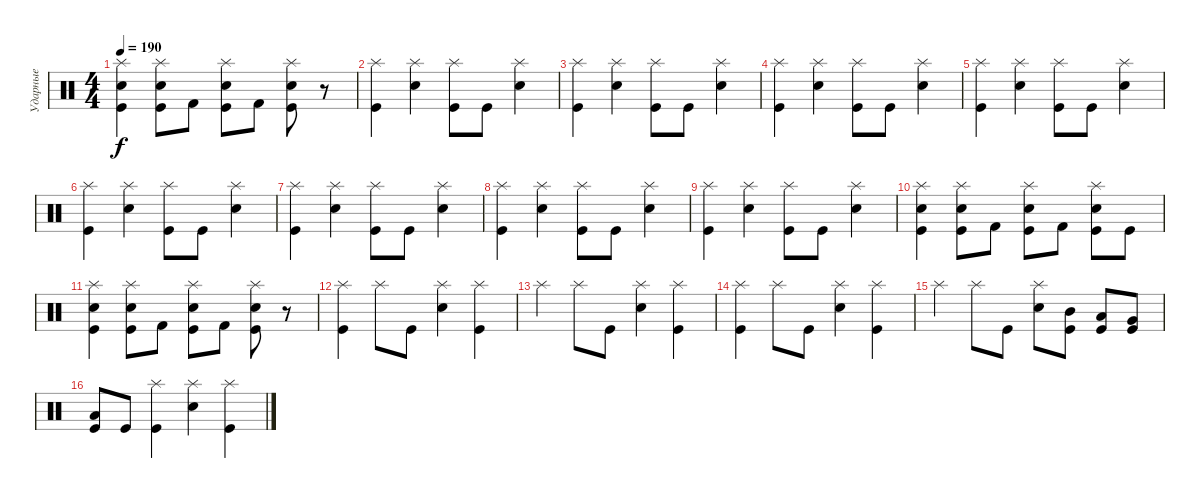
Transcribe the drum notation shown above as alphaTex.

\track ("Ударные" "Ударные") {instrument percussion}
\staff {score}
\articulation defaults
\ts (4 4)
\tempo 190
\clef neutral
\ks c
("Splash (hit)" "Electric Snare (hit)" "Kick (hit)").4{dy f} ("Splash (hit)" "Electric Snare (hit)" "Kick (hit)").8 "Kick (hit) 2".8 ("Splash (hit)" "Electric Snare (hit)" "Kick (hit)").8 "Kick (hit) 2".8 ("Splash (hit)" "Electric Snare (hit)" "Kick (hit)").8 r.8 |
("Splash (hit)" "Kick (hit)").4 ("Splash (hit)" "Electric Snare (hit)").4 ("Splash (hit)" "Kick (hit)").8 "Kick (hit)".8 ("Splash (hit)" "Electric Snare (hit)").4 |
("Splash (hit)" "Kick (hit)").4 ("Splash (hit)" "Electric Snare (hit)").4 ("Splash (hit)" "Kick (hit)").8 "Kick (hit)".8 ("Splash (hit)" "Electric Snare (hit)").4 |
("Splash (hit)" "Kick (hit)").4 ("Splash (hit)" "Electric Snare (hit)").4 ("Splash (hit)" "Kick (hit)").8 "Kick (hit)".8 ("Splash (hit)" "Electric Snare (hit)").4 |
("Splash (hit)" "Kick (hit)").4 ("Splash (hit)" "Electric Snare (hit)").4 ("Splash (hit)" "Kick (hit)").8 "Kick (hit)".8 ("Splash (hit)" "Electric Snare (hit)").4 |
("Splash (hit)" "Kick (hit)").4 ("Splash (hit)" "Electric Snare (hit)").4 ("Splash (hit)" "Kick (hit)").8 "Kick (hit)".8 ("Splash (hit)" "Electric Snare (hit)").4 |
("Splash (hit)" "Kick (hit)").4 ("Splash (hit)" "Electric Snare (hit)").4 ("Splash (hit)" "Kick (hit)").8 "Kick (hit)".8 ("Splash (hit)" "Electric Snare (hit)").4 |
("Splash (hit)" "Kick (hit)").4 ("Splash (hit)" "Electric Snare (hit)").4 ("Splash (hit)" "Kick (hit)").8 "Kick (hit)".8 ("Splash (hit)" "Electric Snare (hit)").4 |
("Splash (hit)" "Kick (hit)").4 ("Splash (hit)" "Electric Snare (hit)").4 ("Splash (hit)" "Kick (hit)").8 "Kick (hit)".8 ("Splash (hit)" "Electric Snare (hit)").4 |
("Splash (hit)" "Electric Snare (hit)" "Kick (hit)").4 ("Splash (hit)" "Electric Snare (hit)" "Kick (hit)").8 "Kick (hit) 2".8 ("Splash (hit)" "Electric Snare (hit)" "Kick (hit)").8 "Kick (hit) 2".8 ("Splash (hit)" "Electric Snare (hit)" "Kick (hit)").8 "Kick (hit)".8 |
("Splash (hit)" "Electric Snare (hit)" "Kick (hit)").4 ("Splash (hit)" "Electric Snare (hit)" "Kick (hit)").8 "Kick (hit) 2".8 ("Splash (hit)" "Electric Snare (hit)" "Kick (hit)").8 "Kick (hit) 2".8 ("Splash (hit)" "Electric Snare (hit)" "Kick (hit)").8 r.8 |
("Splash (hit)" "Kick (hit)").4 "Splash (hit)".8 "Kick (hit)".8 ("Splash (hit)" "Electric Snare (hit)").4 ("Splash (hit)" "Kick (hit)").4 |
"Splash (hit)".4 "Splash (hit)".8 "Kick (hit)".8 ("Splash (hit)" "Electric Snare (hit)").4 ("Splash (hit)" "Kick (hit)").4 |
("Splash (hit)" "Kick (hit)").4 "Splash (hit)".8 "Kick (hit)".8 ("Splash (hit)" "Electric Snare (hit)").4 ("Splash (hit)" "Kick (hit)").4 |
"Splash (hit)".4 "Splash (hit)".8 "Kick (hit)".8 ("Splash (hit)" "Electric Snare (hit)").8 ("Mid Tom (hit)" "Kick (hit)").8 ("Low Tom (hit)" "Kick (hit)").8 ("Very Low Tom (hit)" "Kick (hit)").8 |
("Low Floor Tom (hit)" "Kick (hit)").8 "Kick (hit)".8 ("Splash (hit)" "Kick (hit)").4 ("Splash (hit)" "Electric Snare (hit)").4 ("Splash (hit)" "Kick (hit)").4
